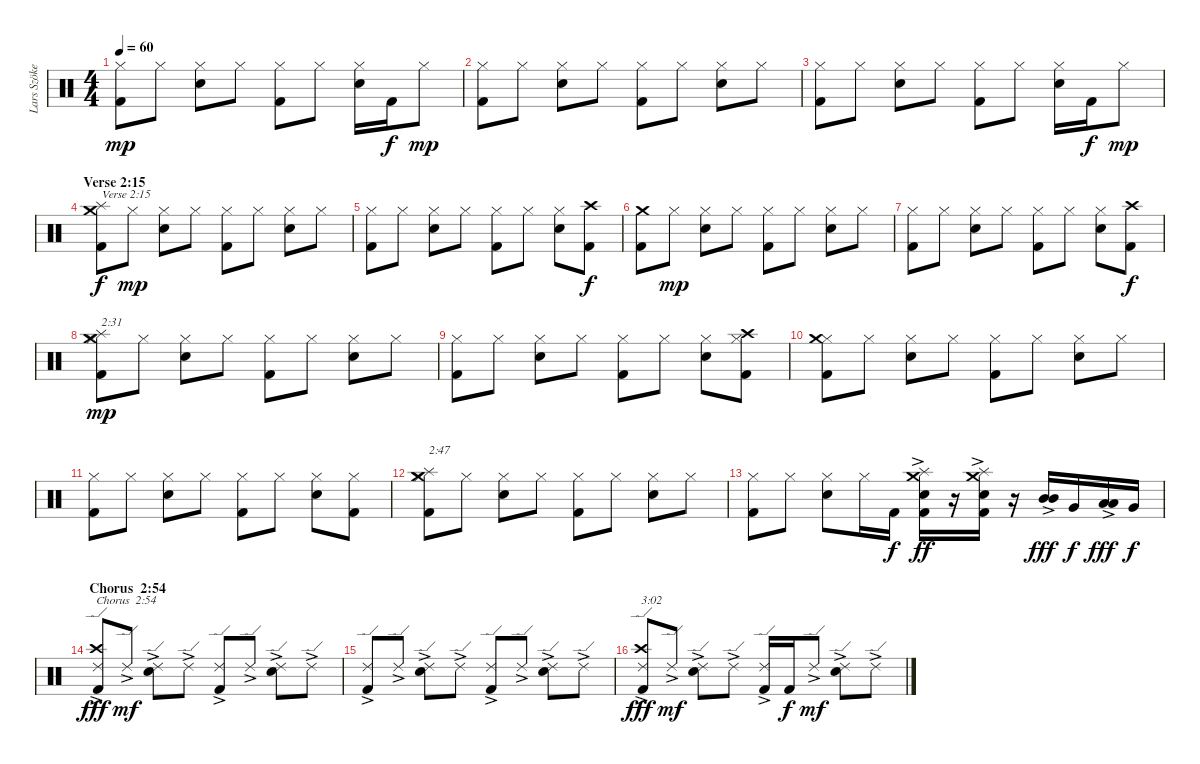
\track ("Lars Szöke (Drums)" "Lars Szöke") {instrument percussion}
\staff {score}
\articulation defaults
\ts (4 4)
\tempo 60
\clef neutral
\ks c
("Kick (hit) 2" "Hi-Hat (closed)").8{dy mp} "Hi-Hat (closed)".8 ("Snare (hit) 2" "Hi-Hat (closed)").8 "Hi-Hat (closed)".8 ("Kick (hit) 2" "Hi-Hat (closed)").8 "Hi-Hat (closed)".8 ("Snare (hit) 2" "Hi-Hat (closed)").16 "Kick (hit) 2".16{dy f} "Hi-Hat (closed)".8{dy mp} |
("Kick (hit) 2" "Hi-Hat (closed)").8 "Hi-Hat (closed)".8 ("Snare (hit) 2" "Hi-Hat (closed)").8 "Hi-Hat (closed)".8 ("Kick (hit) 2" "Hi-Hat (closed)").8 "Hi-Hat (closed)".8 ("Snare (hit) 2" "Hi-Hat (closed)").8 "Hi-Hat (closed)".8 |
("Kick (hit) 2" "Hi-Hat (closed)").8 "Hi-Hat (closed)".8 ("Snare (hit) 2" "Hi-Hat (closed)").8 "Hi-Hat (closed)".8 ("Kick (hit) 2" "Hi-Hat (closed)").8 "Hi-Hat (closed)".8 ("Snare (hit) 2" "Hi-Hat (closed)").16 "Kick (hit) 2".16{dy f} "Hi-Hat (closed)".8{dy mp} |
\section ("" "Verse 2:15")
("Kick (hit) 2" "Splash (hit)" "Crash medium (hit)").8{txt "Verse 2:15" dy f} "Hi-Hat (closed)".8{dy mp} ("Snare (hit) 2" "Hi-Hat (closed)").8 "Hi-Hat (closed)".8 ("Kick (hit) 2" "Hi-Hat (closed)").8 "Hi-Hat (closed)".8 ("Snare (hit) 2" "Hi-Hat (closed)").8 "Hi-Hat (closed)".8 |
("Kick (hit) 2" "Hi-Hat (closed)").8 "Hi-Hat (closed)".8 ("Snare (hit) 2" "Hi-Hat (closed)").8 "Hi-Hat (closed)".8 ("Kick (hit) 2" "Hi-Hat (closed)").8 "Hi-Hat (closed)".8 ("Snare (hit) 2" "Hi-Hat (closed)").8 ("Kick (hit) 2" "Crash high (hit)").8{dy f} |
("Kick (hit) 2" "Crash medium (hit)").8 "Hi-Hat (closed)".8{dy mp} ("Snare (hit) 2" "Hi-Hat (closed)").8 "Hi-Hat (closed)".8 ("Kick (hit) 2" "Hi-Hat (closed)").8 "Hi-Hat (closed)".8 ("Snare (hit) 2" "Hi-Hat (closed)").8 "Hi-Hat (closed)".8 |
("Kick (hit) 2" "Hi-Hat (closed)").8 "Hi-Hat (closed)".8 ("Snare (hit) 2" "Hi-Hat (closed)").8 "Hi-Hat (closed)".8 ("Kick (hit) 2" "Hi-Hat (closed)").8 "Hi-Hat (closed)".8 ("Snare (hit) 2" "Hi-Hat (closed)").8 ("Kick (hit) 2" "Crash high (hit)").8{dy f} |
("Kick (hit) 2" "Hi-Hat (closed)" "Splash (hit)" "Crash medium (hit)").8{txt "2:31" dy mp} "Hi-Hat (closed)".8 ("Snare (hit) 2" "Hi-Hat (closed)").8 "Hi-Hat (closed)".8 ("Kick (hit) 2" "Hi-Hat (closed)").8 "Hi-Hat (closed)".8 ("Snare (hit) 2" "Hi-Hat (closed)").8 "Hi-Hat (closed)".8 |
("Kick (hit) 2" "Hi-Hat (closed)").8 "Hi-Hat (closed)".8 ("Snare (hit) 2" "Hi-Hat (closed)").8 "Hi-Hat (closed)".8 ("Kick (hit) 2" "Hi-Hat (closed)").8 "Hi-Hat (closed)".8 ("Snare (hit) 2" "Hi-Hat (closed)").8 ("Kick (hit) 2" "Hi-Hat (closed)" "Crash high (hit)").8 |
("Kick (hit) 2" "Hi-Hat (closed)" "Crash medium (hit)").8 "Hi-Hat (closed)".8 ("Snare (hit) 2" "Hi-Hat (closed)").8 "Hi-Hat (closed)".8 ("Kick (hit) 2" "Hi-Hat (closed)").8 "Hi-Hat (closed)".8 ("Snare (hit) 2" "Hi-Hat (closed)").8 "Hi-Hat (closed)".8 |
("Kick (hit) 2" "Hi-Hat (closed)").8 "Hi-Hat (closed)".8 ("Snare (hit) 2" "Hi-Hat (closed)").8 "Hi-Hat (closed)".8 ("Kick (hit) 2" "Hi-Hat (closed)").8 "Hi-Hat (closed)".8 ("Snare (hit) 2" "Hi-Hat (closed)").8 ("Kick (hit) 2" "Hi-Hat (closed)").8 |
("Kick (hit) 2" "Hi-Hat (closed)" "Splash (hit)" "Crash medium (hit)").8{txt "2:47"} "Hi-Hat (closed)".8 ("Snare (hit) 2" "Hi-Hat (closed)").8 "Hi-Hat (closed)".8 ("Kick (hit) 2" "Hi-Hat (closed)").8 "Hi-Hat (closed)".8 ("Snare (hit) 2" "Hi-Hat (closed)").8 "Hi-Hat (closed)".8 |
("Kick (hit) 2" "Hi-Hat (closed)").8 "Hi-Hat (closed)".8 ("Snare (hit) 2" "Hi-Hat (closed)").8 "Hi-Hat (closed)".16 "Kick (hit) 2".16{dy f} ("Kick (hit) 2" "Snare (hit) 2"{ac} "Splash (hit)"{ac} "Crash medium (hit)"{ac}).16{dy ff} r.16 ("Kick (hit) 2" "Snare (hit) 2"{ac} "Splash (hit)"{ac} "Crash medium (hit)"{ac}).16 r.16 ("Mid Tom (hit)"{ac} "Mid Tom (hit)"{ac}).16{dy fff} "Very Low Tom (hit)".16{dy f} ("Low Tom (hit)"{ac} "Low Tom (hit)"{ac}).16{dy fff} "Very Low Tom (hit)".16{dy f} |
\section ("" "Chorus  2:54")
("Kick (hit) 2" "Ride (edge) 2"{ac} "Crash high (hit)"{ac}).8{txt "Chorus  2:54" dy fff} "Ride (edge) 2"{ac}.8{dy mf} ("Snare (hit) 2" "Ride (edge) 2"{ac}).8 "Ride (edge) 2"{ac}.8 ("Kick (hit) 2" "Ride (edge) 2"{ac}).8 "Ride (edge) 2"{ac}.8 ("Snare (hit) 2" "Ride (edge) 2"{ac}).8 "Ride (edge) 2"{ac}.8 |
("Kick (hit) 2" "Ride (edge) 2"{ac}).8 "Ride (edge) 2"{ac}.8 ("Snare (hit) 2" "Ride (edge) 2"{ac}).8 "Ride (edge) 2"{ac}.8 ("Kick (hit) 2" "Ride (edge) 2"{ac}).8 "Ride (edge) 2"{ac}.8 ("Snare (hit) 2" "Ride (edge) 2"{ac}).8 "Ride (edge) 2"{ac}.8 |
("Kick (hit) 2" "Ride (edge) 2"{ac} "Crash high (hit)"{ac}).8{txt "3:02" dy fff} "Ride (edge) 2"{ac}.8{dy mf} ("Snare (hit) 2" "Ride (edge) 2"{ac}).8 "Ride (edge) 2"{ac}.8 ("Kick (hit) 2" "Ride (edge) 2"{ac}).16 "Kick (hit) 2".16{dy f} "Ride (edge) 2"{ac}.8{dy mf} ("Snare (hit) 2" "Ride (edge) 2"{ac}).8 "Ride (edge) 2"{ac}.8
